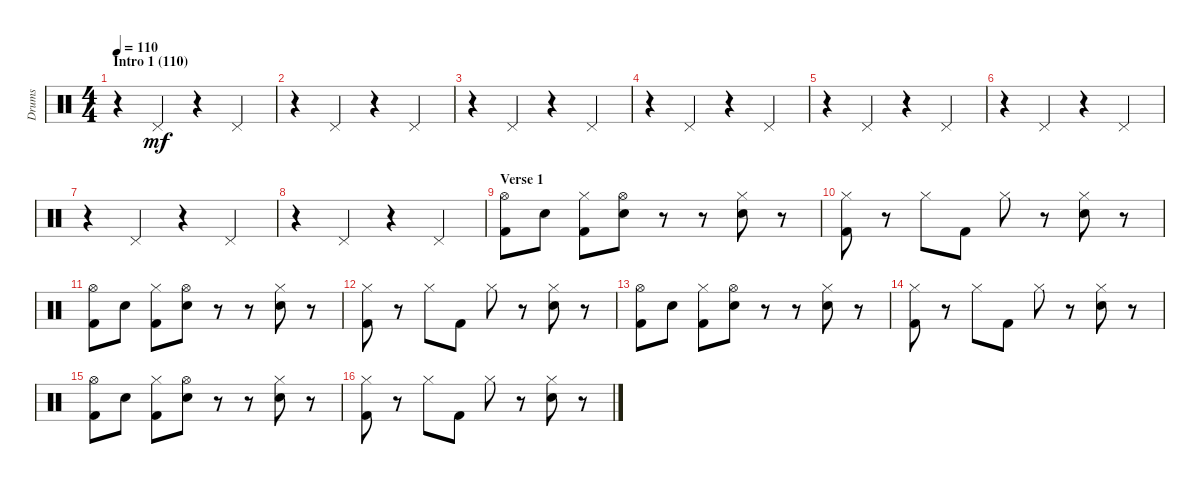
\track ("Drums" "Drums") {instrument percussion}
\staff {score}
\articulation defaults
\ts (4 4)
\section ("" "Intro 1 (110)")
\tempo 110
\clef neutral
\ks c
r.4{dy mf} "Pedal Hi-Hat (hit)".4 r.4 "Pedal Hi-Hat (hit)".4 |
r.4 "Pedal Hi-Hat (hit)".4 r.4 "Pedal Hi-Hat (hit)".4 |
r.4 "Pedal Hi-Hat (hit)".4 r.4 "Pedal Hi-Hat (hit)".4 |
r.4 "Pedal Hi-Hat (hit)".4 r.4 "Pedal Hi-Hat (hit)".4 |
r.4 "Pedal Hi-Hat (hit)".4 r.4 "Pedal Hi-Hat (hit)".4 |
r.4 "Pedal Hi-Hat (hit)".4 r.4 "Pedal Hi-Hat (hit)".4 |
r.4 "Pedal Hi-Hat (hit)".4 r.4 "Pedal Hi-Hat (hit)".4 |
r.4 "Pedal Hi-Hat (hit)".4 r.4 "Pedal Hi-Hat (hit)".4 |
\section ("" "Verse 1")
("Hi-Hat (open)" "Kick (hit) 2").8 "Electric Snare (hit)".8 ("Hi-Hat (closed)" "Kick (hit) 2").8 ("Hi-Hat (open)" "Electric Snare (hit)").8 r.8 r.8 ("Hi-Hat (closed)" "Electric Snare (hit)").8 r.8 |
("Hi-Hat (closed)" "Kick (hit) 2").8 r.8 "Hi-Hat (closed)".8 "Kick (hit) 2".8 "Hi-Hat (closed)".8 r.8 ("Hi-Hat (closed)" "Electric Snare (hit)").8 r.8 |
("Hi-Hat (open)" "Kick (hit) 2").8 "Electric Snare (hit)".8 ("Hi-Hat (closed)" "Kick (hit) 2").8 ("Hi-Hat (open)" "Electric Snare (hit)").8 r.8 r.8 ("Hi-Hat (closed)" "Electric Snare (hit)").8 r.8 |
("Hi-Hat (closed)" "Kick (hit) 2").8 r.8 "Hi-Hat (closed)".8 "Kick (hit) 2".8 "Hi-Hat (closed)".8 r.8 ("Hi-Hat (closed)" "Electric Snare (hit)").8 r.8 |
("Hi-Hat (open)" "Kick (hit) 2").8 "Electric Snare (hit)".8 ("Hi-Hat (closed)" "Kick (hit) 2").8 ("Hi-Hat (open)" "Electric Snare (hit)").8 r.8 r.8 ("Hi-Hat (closed)" "Electric Snare (hit)").8 r.8 |
("Hi-Hat (closed)" "Kick (hit) 2").8 r.8 "Hi-Hat (closed)".8 "Kick (hit) 2".8 "Hi-Hat (closed)".8 r.8 ("Hi-Hat (closed)" "Electric Snare (hit)").8 r.8 |
("Hi-Hat (open)" "Kick (hit) 2").8 "Electric Snare (hit)".8 ("Hi-Hat (closed)" "Kick (hit) 2").8 ("Hi-Hat (open)" "Electric Snare (hit)").8 r.8 r.8 ("Hi-Hat (closed)" "Electric Snare (hit)").8 r.8 |
("Hi-Hat (closed)" "Kick (hit) 2").8 r.8 "Hi-Hat (closed)".8 "Kick (hit) 2".8 "Hi-Hat (closed)".8 r.8 ("Hi-Hat (closed)" "Electric Snare (hit)").8 r.8
